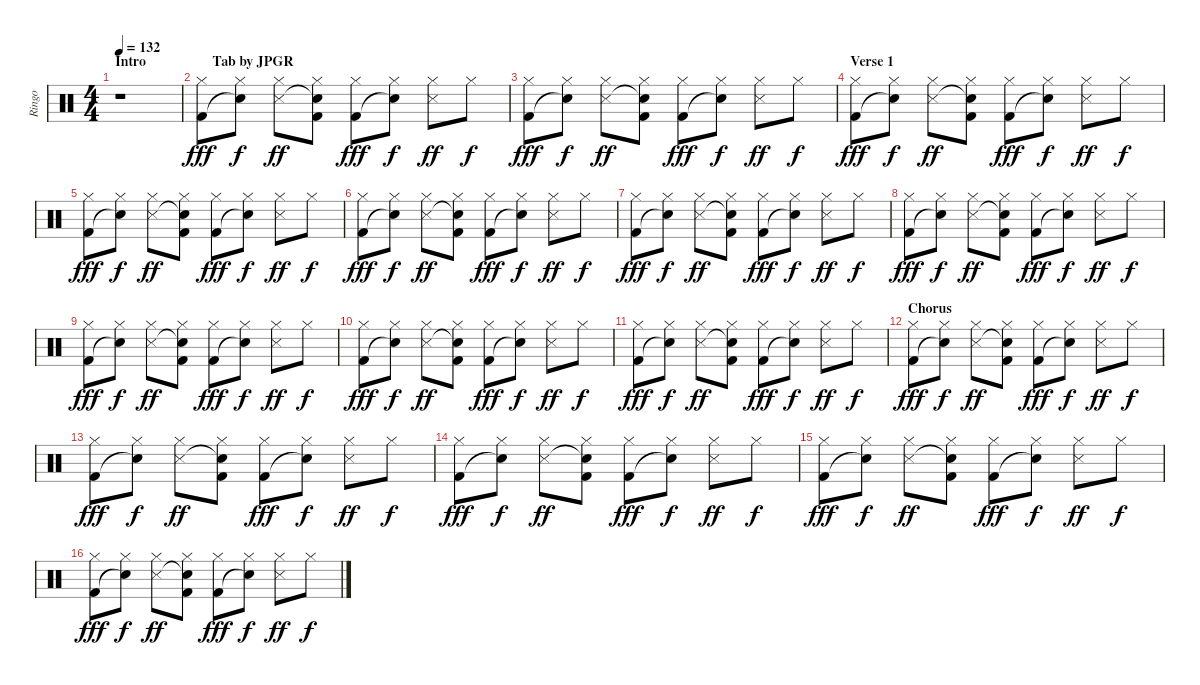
\track ("Ringo" "Ringo") {instrument percussion}
\staff {score}
\articulation defaults
\ts (4 4)
\section ("" "Intro                   Tab by JPGR")
\tempo 132
\clef neutral
\ks c
r.1{dy fff} |
("Hi-Hat (closed)" "Kick (hit) 2").8 ("Hi-Hat (closed)" "Snare (hit)"{t}).8{dy f} ("Hi-Hat (closed)" "Snare (side stick) 3").8{dy ff} ("Hi-Hat (closed)" "Snare (hit)"{t} "Kick (hit) 2").8 ("Hi-Hat (closed)" "Kick (hit) 2").8{dy fff} ("Hi-Hat (closed)" "Snare (hit)"{t}).8{dy f} ("Hi-Hat (closed)" "Snare (side stick) 3").8{dy ff} "Hi-Hat (closed)".8{dy f} |
("Hi-Hat (closed)" "Kick (hit) 2").8{dy fff} ("Hi-Hat (closed)" "Snare (hit)"{t}).8{dy f} ("Hi-Hat (closed)" "Snare (side stick) 3").8{dy ff} ("Hi-Hat (closed)" "Snare (hit)"{t} "Kick (hit) 2").8 ("Hi-Hat (closed)" "Kick (hit) 2").8{dy fff} ("Hi-Hat (closed)" "Snare (hit)"{t}).8{dy f} ("Hi-Hat (closed)" "Snare (side stick) 3").8{dy ff} "Hi-Hat (closed)".8{dy f} |
\section ("" "Verse 1")
("Hi-Hat (closed)" "Kick (hit) 2").8{dy fff} ("Hi-Hat (closed)" "Snare (hit)"{t}).8{dy f} ("Hi-Hat (closed)" "Snare (side stick) 3").8{dy ff} ("Hi-Hat (closed)" "Snare (hit)"{t} "Kick (hit) 2").8 ("Hi-Hat (closed)" "Kick (hit) 2").8{dy fff} ("Hi-Hat (closed)" "Snare (hit)"{t}).8{dy f} ("Hi-Hat (closed)" "Snare (side stick) 3").8{dy ff} "Hi-Hat (closed)".8{dy f} |
("Hi-Hat (closed)" "Kick (hit) 2").8{dy fff} ("Hi-Hat (closed)" "Snare (hit)"{t}).8{dy f} ("Hi-Hat (closed)" "Snare (side stick) 3").8{dy ff} ("Hi-Hat (closed)" "Snare (hit)"{t} "Kick (hit) 2").8 ("Hi-Hat (closed)" "Kick (hit) 2").8{dy fff} ("Hi-Hat (closed)" "Snare (hit)"{t}).8{dy f} ("Hi-Hat (closed)" "Snare (side stick) 3").8{dy ff} "Hi-Hat (closed)".8{dy f} |
("Hi-Hat (closed)" "Kick (hit) 2").8{dy fff} ("Hi-Hat (closed)" "Snare (hit)"{t}).8{dy f} ("Hi-Hat (closed)" "Snare (side stick) 3").8{dy ff} ("Hi-Hat (closed)" "Snare (hit)"{t} "Kick (hit) 2").8 ("Hi-Hat (closed)" "Kick (hit) 2").8{dy fff} ("Hi-Hat (closed)" "Snare (hit)"{t}).8{dy f} ("Hi-Hat (closed)" "Snare (side stick) 3").8{dy ff} "Hi-Hat (closed)".8{dy f} |
("Hi-Hat (closed)" "Kick (hit) 2").8{dy fff} ("Hi-Hat (closed)" "Snare (hit)"{t}).8{dy f} ("Hi-Hat (closed)" "Snare (side stick) 3").8{dy ff} ("Hi-Hat (closed)" "Snare (hit)"{t} "Kick (hit) 2").8 ("Hi-Hat (closed)" "Kick (hit) 2").8{dy fff} ("Hi-Hat (closed)" "Snare (hit)"{t}).8{dy f} ("Hi-Hat (closed)" "Snare (side stick) 3").8{dy ff} "Hi-Hat (closed)".8{dy f} |
("Hi-Hat (closed)" "Kick (hit) 2").8{dy fff} ("Hi-Hat (closed)" "Snare (hit)"{t}).8{dy f} ("Hi-Hat (closed)" "Snare (side stick) 3").8{dy ff} ("Hi-Hat (closed)" "Snare (hit)"{t} "Kick (hit) 2").8 ("Hi-Hat (closed)" "Kick (hit) 2").8{dy fff} ("Hi-Hat (closed)" "Snare (hit)"{t}).8{dy f} ("Hi-Hat (closed)" "Snare (side stick) 3").8{dy ff} "Hi-Hat (closed)".8{dy f} |
("Hi-Hat (closed)" "Kick (hit) 2").8{dy fff} ("Hi-Hat (closed)" "Snare (hit)"{t}).8{dy f} ("Hi-Hat (closed)" "Snare (side stick) 3").8{dy ff} ("Hi-Hat (closed)" "Snare (hit)"{t} "Kick (hit) 2").8 ("Hi-Hat (closed)" "Kick (hit) 2").8{dy fff} ("Hi-Hat (closed)" "Snare (hit)"{t}).8{dy f} ("Hi-Hat (closed)" "Snare (side stick) 3").8{dy ff} "Hi-Hat (closed)".8{dy f} |
("Hi-Hat (closed)" "Kick (hit) 2").8{dy fff} ("Hi-Hat (closed)" "Snare (hit)"{t}).8{dy f} ("Hi-Hat (closed)" "Snare (side stick) 3").8{dy ff} ("Hi-Hat (closed)" "Snare (hit)"{t} "Kick (hit) 2").8 ("Hi-Hat (closed)" "Kick (hit) 2").8{dy fff} ("Hi-Hat (closed)" "Snare (hit)"{t}).8{dy f} ("Hi-Hat (closed)" "Snare (side stick) 3").8{dy ff} "Hi-Hat (closed)".8{dy f} |
("Hi-Hat (closed)" "Kick (hit) 2").8{dy fff} ("Hi-Hat (closed)" "Snare (hit)"{t}).8{dy f} ("Hi-Hat (closed)" "Snare (side stick) 3").8{dy ff} ("Hi-Hat (closed)" "Snare (hit)"{t} "Kick (hit) 2").8 ("Hi-Hat (closed)" "Kick (hit) 2").8{dy fff} ("Hi-Hat (closed)" "Snare (hit)"{t}).8{dy f} ("Hi-Hat (closed)" "Snare (side stick) 3").8{dy ff} "Hi-Hat (closed)".8{dy f} |
\section ("" "Chorus")
("Hi-Hat (closed)" "Kick (hit) 2").8{dy fff} ("Hi-Hat (closed)" "Snare (hit)"{t}).8{dy f} ("Hi-Hat (closed)" "Snare (side stick) 3").8{dy ff} ("Hi-Hat (closed)" "Snare (hit)"{t} "Kick (hit) 2").8 ("Hi-Hat (closed)" "Kick (hit) 2").8{dy fff} ("Hi-Hat (closed)" "Snare (hit)"{t}).8{dy f} ("Hi-Hat (closed)" "Snare (side stick) 3").8{dy ff} "Hi-Hat (closed)".8{dy f} |
("Hi-Hat (closed)" "Kick (hit) 2").8{dy fff} ("Hi-Hat (closed)" "Snare (hit)"{t}).8{dy f} ("Hi-Hat (closed)" "Snare (side stick) 3").8{dy ff} ("Hi-Hat (closed)" "Snare (hit)"{t} "Kick (hit) 2").8 ("Hi-Hat (closed)" "Kick (hit) 2").8{dy fff} ("Hi-Hat (closed)" "Snare (hit)"{t}).8{dy f} ("Hi-Hat (closed)" "Snare (side stick) 3").8{dy ff} "Hi-Hat (closed)".8{dy f} |
("Hi-Hat (closed)" "Kick (hit) 2").8{dy fff} ("Hi-Hat (closed)" "Snare (hit)"{t}).8{dy f} ("Hi-Hat (closed)" "Snare (side stick) 3").8{dy ff} ("Hi-Hat (closed)" "Snare (hit)"{t} "Kick (hit) 2").8 ("Hi-Hat (closed)" "Kick (hit) 2").8{dy fff} ("Hi-Hat (closed)" "Snare (hit)"{t}).8{dy f} ("Hi-Hat (closed)" "Snare (side stick) 3").8{dy ff} "Hi-Hat (closed)".8{dy f} |
("Hi-Hat (closed)" "Kick (hit) 2").8{dy fff} ("Hi-Hat (closed)" "Snare (hit)"{t}).8{dy f} ("Hi-Hat (closed)" "Snare (side stick) 3").8{dy ff} ("Hi-Hat (closed)" "Snare (hit)"{t} "Kick (hit) 2").8 ("Hi-Hat (closed)" "Kick (hit) 2").8{dy fff} ("Hi-Hat (closed)" "Snare (hit)"{t}).8{dy f} ("Hi-Hat (closed)" "Snare (side stick) 3").8{dy ff} "Hi-Hat (closed)".8{dy f} |
("Hi-Hat (closed)" "Kick (hit) 2").8{dy fff} ("Hi-Hat (closed)" "Snare (hit)"{t}).8{dy f} ("Hi-Hat (closed)" "Snare (side stick) 3").8{dy ff} ("Hi-Hat (closed)" "Snare (hit)"{t} "Kick (hit) 2").8 ("Hi-Hat (closed)" "Kick (hit) 2").8{dy fff} ("Hi-Hat (closed)" "Snare (hit)"{t}).8{dy f} ("Hi-Hat (closed)" "Snare (side stick) 3").8{dy ff} "Hi-Hat (closed)".8{dy f}
